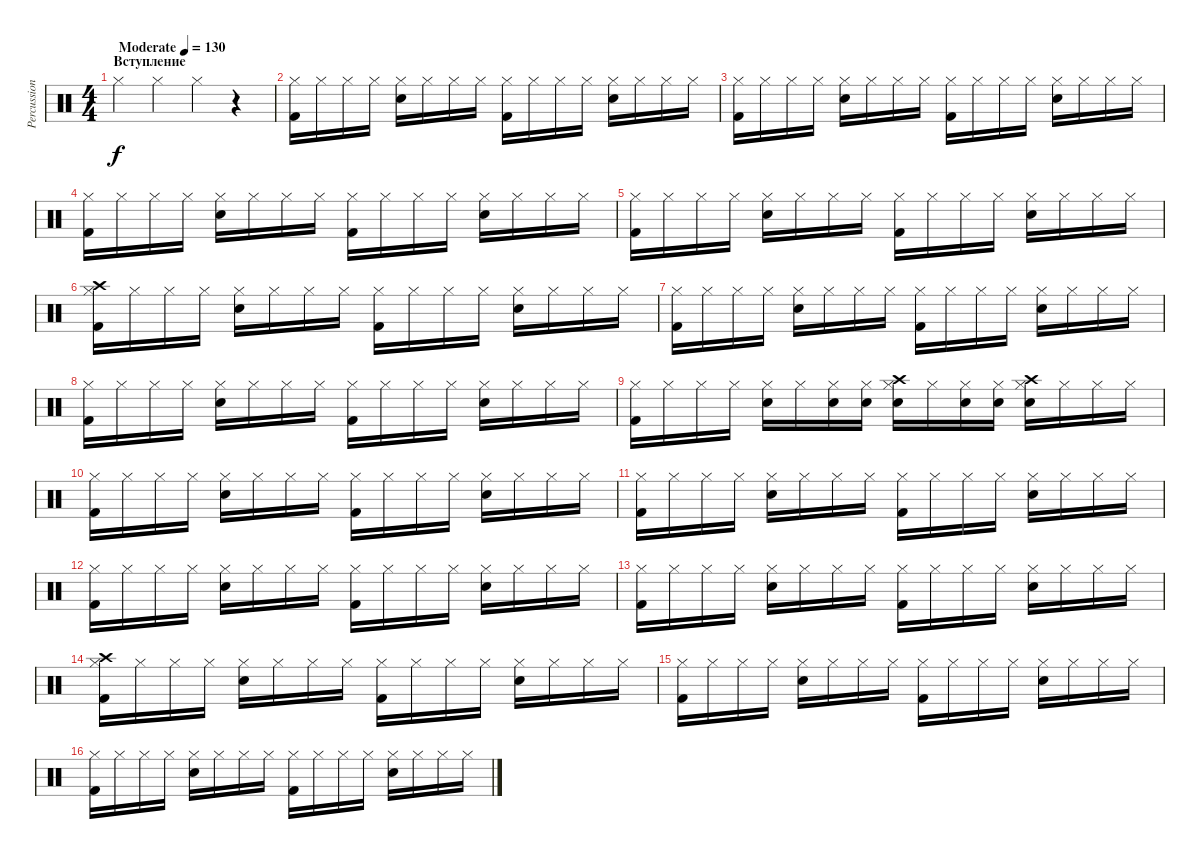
\track ("Percussion" "Percussion") {instrument percussion}
\staff {score}
\articulation defaults
\ts (4 4)
\section ("" "Вступление")
\tempo (130 "Moderate")
\clef neutral
\ks c "Hi-Hat (closed)".4{dy f} "Hi-Hat (closed)".4 "Hi-Hat (closed)".4
r.4 |
("Kick (hit) 2" "Hi-Hat (closed)").16 "Hi-Hat (closed)".16 "Hi-Hat (closed)".16 "Hi-Hat (closed)".16 ("Snare (hit) 2" "Hi-Hat (closed)").16 "Hi-Hat (closed)".16 "Hi-Hat (closed)".16 "Hi-Hat (closed)".16 ("Kick (hit) 2" "Hi-Hat (closed)").16 "Hi-Hat (closed)".16 "Hi-Hat (closed)".16 "Hi-Hat (closed)".16 ("Snare (hit) 2" "Hi-Hat (closed)").16 "Hi-Hat (closed)".16 "Hi-Hat (closed)".16 "Hi-Hat (closed)".16 |
("Kick (hit) 2" "Hi-Hat (closed)").16 "Hi-Hat (closed)".16 "Hi-Hat (closed)".16 "Hi-Hat (closed)".16 ("Snare (hit) 2" "Hi-Hat (closed)").16 "Hi-Hat (closed)".16 "Hi-Hat (closed)".16 "Hi-Hat (closed)".16 ("Kick (hit) 2" "Hi-Hat (closed)").16 "Hi-Hat (closed)".16 "Hi-Hat (closed)".16 "Hi-Hat (closed)".16 ("Snare (hit) 2" "Hi-Hat (closed)").16 "Hi-Hat (closed)".16 "Hi-Hat (closed)".16 "Hi-Hat (closed)".16 |
("Kick (hit) 2" "Hi-Hat (closed)").16 "Hi-Hat (closed)".16 "Hi-Hat (closed)".16 "Hi-Hat (closed)".16 ("Snare (hit) 2" "Hi-Hat (closed)").16 "Hi-Hat (closed)".16 "Hi-Hat (closed)".16 "Hi-Hat (closed)".16 ("Kick (hit) 2" "Hi-Hat (closed)").16 "Hi-Hat (closed)".16 "Hi-Hat (closed)".16 "Hi-Hat (closed)".16 ("Snare (hit) 2" "Hi-Hat (closed)").16 "Hi-Hat (closed)".16 "Hi-Hat (closed)".16 "Hi-Hat (closed)".16 |
("Kick (hit) 2" "Hi-Hat (closed)").16 "Hi-Hat (closed)".16 "Hi-Hat (closed)".16 "Hi-Hat (closed)".16 ("Snare (hit) 2" "Hi-Hat (closed)").16 "Hi-Hat (closed)".16 "Hi-Hat (closed)".16 "Hi-Hat (closed)".16 ("Kick (hit) 2" "Hi-Hat (closed)").16 "Hi-Hat (closed)".16 "Hi-Hat (closed)".16 "Hi-Hat (closed)".16 ("Snare (hit) 2" "Hi-Hat (closed)").16 "Hi-Hat (closed)".16 "Hi-Hat (closed)".16 "Hi-Hat (closed)".16 |
("Crash high (hit)" "Kick (hit) 2" "Hi-Hat (closed)").16 "Hi-Hat (closed)".16 "Hi-Hat (closed)".16 "Hi-Hat (closed)".16 ("Snare (hit) 2" "Hi-Hat (closed)").16 "Hi-Hat (closed)".16 "Hi-Hat (closed)".16 "Hi-Hat (closed)".16 ("Kick (hit) 2" "Hi-Hat (closed)").16 "Hi-Hat (closed)".16 "Hi-Hat (closed)".16 "Hi-Hat (closed)".16 ("Snare (hit) 2" "Hi-Hat (closed)").16 "Hi-Hat (closed)".16 "Hi-Hat (closed)".16 "Hi-Hat (closed)".16 |
("Kick (hit) 2" "Hi-Hat (closed)").16 "Hi-Hat (closed)".16 "Hi-Hat (closed)".16 "Hi-Hat (closed)".16 ("Snare (hit) 2" "Hi-Hat (closed)").16 "Hi-Hat (closed)".16 "Hi-Hat (closed)".16 "Hi-Hat (closed)".16 ("Kick (hit) 2" "Hi-Hat (closed)").16 "Hi-Hat (closed)".16 "Hi-Hat (closed)".16 "Hi-Hat (closed)".16 ("Snare (hit) 2" "Hi-Hat (closed)").16 "Hi-Hat (closed)".16 "Hi-Hat (closed)".16 "Hi-Hat (closed)".16 |
("Kick (hit) 2" "Hi-Hat (closed)").16 "Hi-Hat (closed)".16 "Hi-Hat (closed)".16 "Hi-Hat (closed)".16 ("Snare (hit) 2" "Hi-Hat (closed)").16 "Hi-Hat (closed)".16 "Hi-Hat (closed)".16 "Hi-Hat (closed)".16 ("Kick (hit) 2" "Hi-Hat (closed)").16 "Hi-Hat (closed)".16 "Hi-Hat (closed)".16 "Hi-Hat (closed)".16 ("Snare (hit) 2" "Hi-Hat (closed)").16 "Hi-Hat (closed)".16 "Hi-Hat (closed)".16 "Hi-Hat (closed)".16 |
("Hi-Hat (closed)" "Kick (hit) 2").16 "Hi-Hat (closed)".16 "Hi-Hat (closed)".16 "Hi-Hat (closed)".16 ("Hi-Hat (closed)" "Snare (hit) 2").16 "Hi-Hat (closed)".16 ("Hi-Hat (closed)" "Snare (hit) 2").16 ("Hi-Hat (closed)" "Snare (hit) 2").16 ("Crash high (hit)" "Hi-Hat (closed)" "Snare (hit) 2").16 "Hi-Hat (closed)".16 ("Hi-Hat (closed)" "Snare (hit) 2").16 ("Snare (hit) 2" "Hi-Hat (closed)").16 ("Crash high (hit)" "Snare (hit) 2" "Hi-Hat (closed)").16 "Hi-Hat (closed)".16 "Hi-Hat (closed)".16 "Hi-Hat (closed)".16 |
("Kick (hit) 2" "Hi-Hat (closed)").16 "Hi-Hat (closed)".16 "Hi-Hat (closed)".16 "Hi-Hat (closed)".16 ("Snare (hit) 2" "Hi-Hat (closed)").16 "Hi-Hat (closed)".16 "Hi-Hat (closed)".16 "Hi-Hat (closed)".16 ("Kick (hit) 2" "Hi-Hat (closed)").16 "Hi-Hat (closed)".16 "Hi-Hat (closed)".16 "Hi-Hat (closed)".16 ("Snare (hit) 2" "Hi-Hat (closed)").16 "Hi-Hat (closed)".16 "Hi-Hat (closed)".16 "Hi-Hat (closed)".16 |
("Kick (hit) 2" "Hi-Hat (closed)").16 "Hi-Hat (closed)".16 "Hi-Hat (closed)".16 "Hi-Hat (closed)".16 ("Snare (hit) 2" "Hi-Hat (closed)").16 "Hi-Hat (closed)".16 "Hi-Hat (closed)".16 "Hi-Hat (closed)".16 ("Kick (hit) 2" "Hi-Hat (closed)").16 "Hi-Hat (closed)".16 "Hi-Hat (closed)".16 "Hi-Hat (closed)".16 ("Snare (hit) 2" "Hi-Hat (closed)").16 "Hi-Hat (closed)".16 "Hi-Hat (closed)".16 "Hi-Hat (closed)".16 |
("Kick (hit) 2" "Hi-Hat (closed)").16 "Hi-Hat (closed)".16 "Hi-Hat (closed)".16 "Hi-Hat (closed)".16 ("Snare (hit) 2" "Hi-Hat (closed)").16 "Hi-Hat (closed)".16 "Hi-Hat (closed)".16 "Hi-Hat (closed)".16 ("Kick (hit) 2" "Hi-Hat (closed)").16 "Hi-Hat (closed)".16 "Hi-Hat (closed)".16 "Hi-Hat (closed)".16 ("Snare (hit) 2" "Hi-Hat (closed)").16 "Hi-Hat (closed)".16 "Hi-Hat (closed)".16 "Hi-Hat (closed)".16 |
("Kick (hit) 2" "Hi-Hat (closed)").16 "Hi-Hat (closed)".16 "Hi-Hat (closed)".16 "Hi-Hat (closed)".16 ("Snare (hit) 2" "Hi-Hat (closed)").16 "Hi-Hat (closed)".16 "Hi-Hat (closed)".16 "Hi-Hat (closed)".16 ("Kick (hit) 2" "Hi-Hat (closed)").16 "Hi-Hat (closed)".16 "Hi-Hat (closed)".16 "Hi-Hat (closed)".16 ("Snare (hit) 2" "Hi-Hat (closed)").16 "Hi-Hat (closed)".16 "Hi-Hat (closed)".16 "Hi-Hat (closed)".16 |
("Crash high (hit)" "Kick (hit) 2" "Hi-Hat (closed)").16 "Hi-Hat (closed)".16 "Hi-Hat (closed)".16 "Hi-Hat (closed)".16 ("Snare (hit) 2" "Hi-Hat (closed)").16 "Hi-Hat (closed)".16 "Hi-Hat (closed)".16 "Hi-Hat (closed)".16 ("Kick (hit) 2" "Hi-Hat (closed)").16 "Hi-Hat (closed)".16 "Hi-Hat (closed)".16 "Hi-Hat (closed)".16 ("Snare (hit) 2" "Hi-Hat (closed)").16 "Hi-Hat (closed)".16 "Hi-Hat (closed)".16 "Hi-Hat (closed)".16 |
("Kick (hit) 2" "Hi-Hat (closed)").16 "Hi-Hat (closed)".16 "Hi-Hat (closed)".16 "Hi-Hat (closed)".16 ("Snare (hit) 2" "Hi-Hat (closed)").16 "Hi-Hat (closed)".16 "Hi-Hat (closed)".16 "Hi-Hat (closed)".16 ("Kick (hit) 2" "Hi-Hat (closed)").16 "Hi-Hat (closed)".16 "Hi-Hat (closed)".16 "Hi-Hat (closed)".16 ("Snare (hit) 2" "Hi-Hat (closed)").16 "Hi-Hat (closed)".16 "Hi-Hat (closed)".16 "Hi-Hat (closed)".16 |
("Kick (hit) 2" "Hi-Hat (closed)").16 "Hi-Hat (closed)".16 "Hi-Hat (closed)".16 "Hi-Hat (closed)".16 ("Snare (hit) 2" "Hi-Hat (closed)").16 "Hi-Hat (closed)".16 "Hi-Hat (closed)".16 "Hi-Hat (closed)".16 ("Kick (hit) 2" "Hi-Hat (closed)").16 "Hi-Hat (closed)".16 "Hi-Hat (closed)".16 "Hi-Hat (closed)".16 ("Snare (hit) 2" "Hi-Hat (closed)").16 "Hi-Hat (closed)".16 "Hi-Hat (closed)".16 "Hi-Hat (closed)".16
